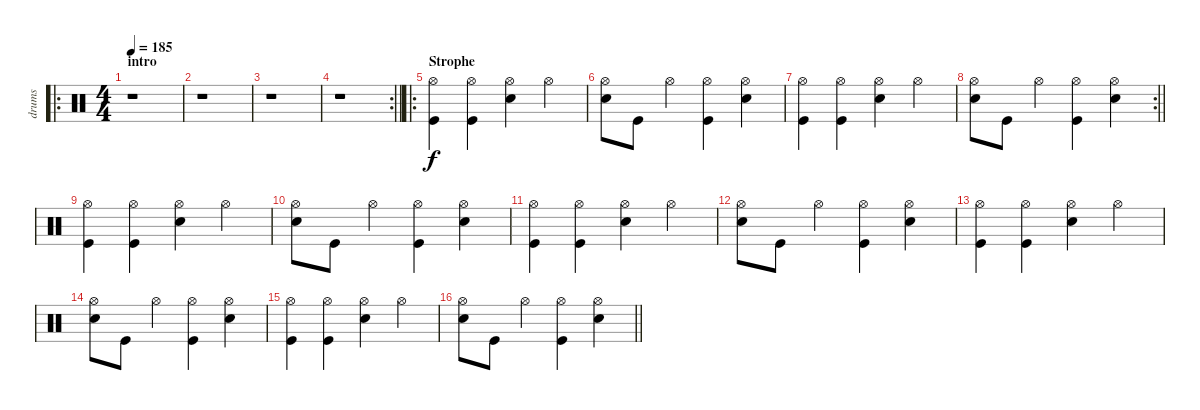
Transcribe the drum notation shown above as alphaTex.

\track ("drums" "drums") {instrument percussion}
\staff {score}
\articulation defaults
\ro
\ts (4 4)
\section ("" "intro")
\tempo 185
\clef neutral
\ks c
r.1{dy f} |
r.1 |
r.1 |
\rc 2
\barLineRight lightlight
r.1 |
\ro
\section ("" "Strophe")
("Hi-Hat (open)" "Kick (hit)").4 ("Hi-Hat (open)" "Kick (hit)").4 ("Hi-Hat (open)" "Snare (hit) 2").4 "Hi-Hat (open)".4 |
("Hi-Hat (open)" "Snare (hit) 2").8 "Kick (hit)".8 "Hi-Hat (open)".4 ("Hi-Hat (open)" "Kick (hit)").4 ("Hi-Hat (open)" "Snare (hit) 2").4 |
("Hi-Hat (open)" "Kick (hit)").4 ("Hi-Hat (open)" "Kick (hit)").4 ("Hi-Hat (open)" "Snare (hit) 2").4 "Hi-Hat (open)".4 |
\rc 2
\barLineRight lightlight
("Hi-Hat (open)" "Snare (hit) 2").8 "Kick (hit)".8 "Hi-Hat (open)".4 ("Hi-Hat (open)" "Kick (hit)").4 ("Hi-Hat (open)" "Snare (hit) 2").4 |
\section ("" "")
("Hi-Hat (open)" "Kick (hit)").4 ("Hi-Hat (open)" "Kick (hit)").4 ("Hi-Hat (open)" "Snare (hit) 2").4 "Hi-Hat (open)".4 |
("Hi-Hat (open)" "Snare (hit) 2").8 "Kick (hit)".8 "Hi-Hat (open)".4 ("Hi-Hat (open)" "Kick (hit)").4 ("Hi-Hat (open)" "Snare (hit) 2").4 |
("Hi-Hat (open)" "Kick (hit)").4 ("Hi-Hat (open)" "Kick (hit)").4 ("Hi-Hat (open)" "Snare (hit) 2").4 "Hi-Hat (open)".4 |
("Hi-Hat (open)" "Snare (hit) 2").8 "Kick (hit)".8 "Hi-Hat (open)".4 ("Hi-Hat (open)" "Kick (hit)").4 ("Hi-Hat (open)" "Snare (hit) 2").4 |
("Hi-Hat (open)" "Kick (hit)").4 ("Hi-Hat (open)" "Kick (hit)").4 ("Hi-Hat (open)" "Snare (hit) 2").4 "Hi-Hat (open)".4 |
("Hi-Hat (open)" "Snare (hit) 2").8 "Kick (hit)".8 "Hi-Hat (open)".4 ("Hi-Hat (open)" "Kick (hit)").4 ("Hi-Hat (open)" "Snare (hit) 2").4 |
("Hi-Hat (open)" "Kick (hit)").4 ("Hi-Hat (open)" "Kick (hit)").4 ("Hi-Hat (open)" "Snare (hit) 2").4 "Hi-Hat (open)".4 |
\barLineRight lightlight
("Hi-Hat (open)" "Snare (hit) 2").8 "Kick (hit)".8 "Hi-Hat (open)".4 ("Hi-Hat (open)" "Kick (hit)").4 ("Hi-Hat (open)" "Snare (hit) 2").4
